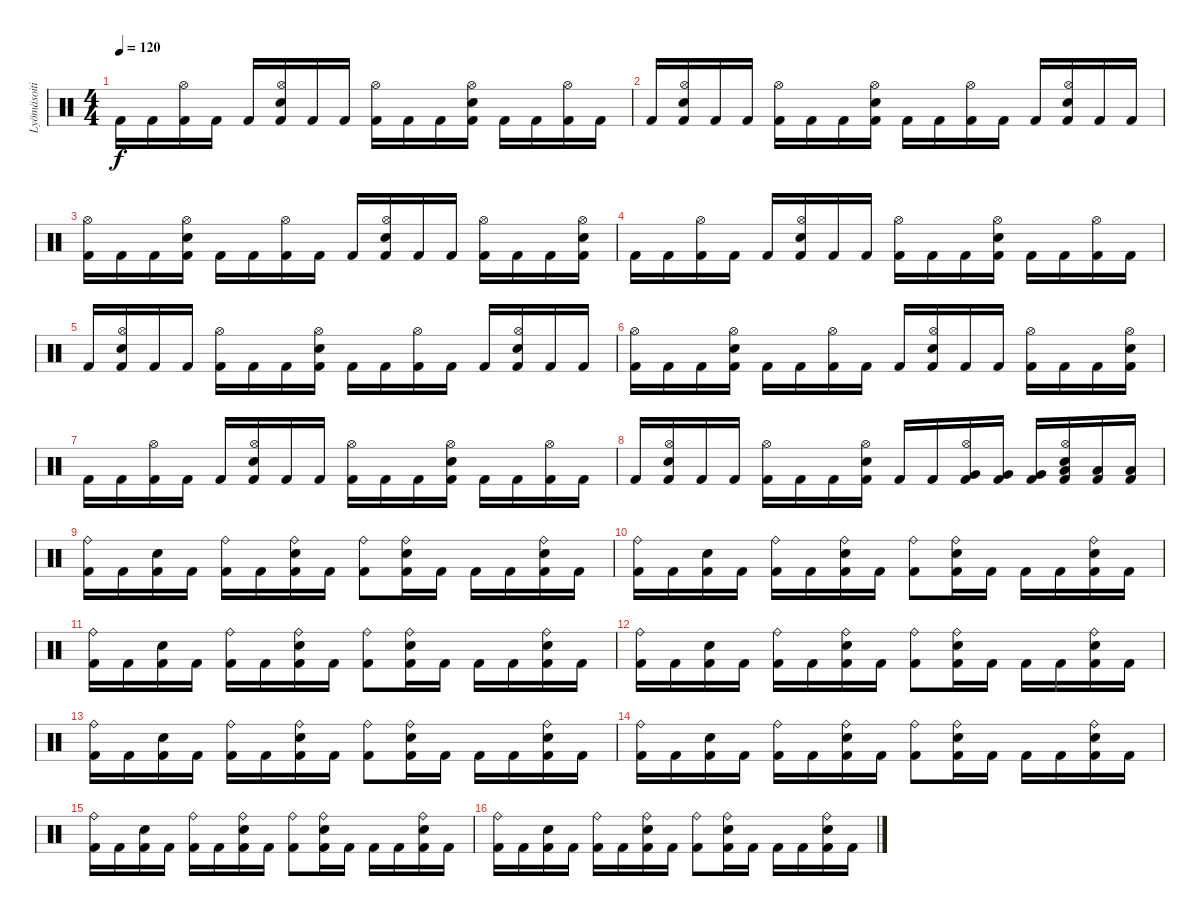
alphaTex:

\track ("Lyömäsoitin" "Lyömäsoiti") {instrument percussion}
\staff {score}
\articulation defaults
\ts (4 4)
\tempo 120
\clef neutral
\ks c "Kick (hit) 2".16{dy f} "Kick (hit) 2".16
("Hi-Hat (open)" "Kick (hit) 2").16 "Kick (hit) 2".16 "Kick (hit) 2".16 ("Hi-Hat (open)" "Electric Snare (hit)" "Kick (hit) 2").16 "Kick (hit) 2".16 "Kick (hit) 2".16 ("Hi-Hat (open)" "Kick (hit) 2").16 "Kick (hit) 2".16 "Kick (hit) 2".16 ("Hi-Hat (open)" "Electric Snare (hit)" "Kick (hit) 2").16 "Kick (hit) 2".16 "Kick (hit) 2".16 ("Hi-Hat (open)" "Kick (hit) 2").16 "Kick (hit) 2".16 |
"Kick (hit) 2".16 ("Hi-Hat (open)" "Electric Snare (hit)" "Kick (hit) 2").16 "Kick (hit) 2".16 "Kick (hit) 2".16 ("Hi-Hat (open)" "Kick (hit) 2").16 "Kick (hit) 2".16 "Kick (hit) 2".16 ("Hi-Hat (open)" "Electric Snare (hit)" "Kick (hit) 2").16 "Kick (hit) 2".16 "Kick (hit) 2".16 ("Hi-Hat (open)" "Kick (hit) 2").16 "Kick (hit) 2".16 "Kick (hit) 2".16 ("Hi-Hat (open)" "Electric Snare (hit)" "Kick (hit) 2").16 "Kick (hit) 2".16 "Kick (hit) 2".16 |
("Hi-Hat (open)" "Kick (hit) 2").16 "Kick (hit) 2".16 "Kick (hit) 2".16 ("Hi-Hat (open)" "Electric Snare (hit)" "Kick (hit) 2").16 "Kick (hit) 2".16 "Kick (hit) 2".16 ("Hi-Hat (open)" "Kick (hit) 2").16 "Kick (hit) 2".16 "Kick (hit) 2".16 ("Hi-Hat (open)" "Electric Snare (hit)" "Kick (hit) 2").16 "Kick (hit) 2".16 "Kick (hit) 2".16 ("Hi-Hat (open)" "Kick (hit) 2").16 "Kick (hit) 2".16 "Kick (hit) 2".16 ("Hi-Hat (open)" "Electric Snare (hit)" "Kick (hit) 2").16 |
"Kick (hit) 2".16 "Kick (hit) 2".16 ("Hi-Hat (open)" "Kick (hit) 2").16 "Kick (hit) 2".16 "Kick (hit) 2".16 ("Hi-Hat (open)" "Electric Snare (hit)" "Kick (hit) 2").16 "Kick (hit) 2".16 "Kick (hit) 2".16 ("Hi-Hat (open)" "Kick (hit) 2").16 "Kick (hit) 2".16 "Kick (hit) 2".16 ("Hi-Hat (open)" "Electric Snare (hit)" "Kick (hit) 2").16 "Kick (hit) 2".16 "Kick (hit) 2".16 ("Hi-Hat (open)" "Kick (hit) 2").16 "Kick (hit) 2".16 |
"Kick (hit) 2".16 ("Hi-Hat (open)" "Electric Snare (hit)" "Kick (hit) 2").16 "Kick (hit) 2".16 "Kick (hit) 2".16 ("Hi-Hat (open)" "Kick (hit) 2").16 "Kick (hit) 2".16 "Kick (hit) 2".16 ("Hi-Hat (open)" "Electric Snare (hit)" "Kick (hit) 2").16 "Kick (hit) 2".16 "Kick (hit) 2".16 ("Hi-Hat (open)" "Kick (hit) 2").16 "Kick (hit) 2".16 "Kick (hit) 2".16 ("Hi-Hat (open)" "Electric Snare (hit)" "Kick (hit) 2").16 "Kick (hit) 2".16 "Kick (hit) 2".16 |
("Hi-Hat (open)" "Kick (hit) 2").16 "Kick (hit) 2".16 "Kick (hit) 2".16 ("Hi-Hat (open)" "Electric Snare (hit)" "Kick (hit) 2").16 "Kick (hit) 2".16 "Kick (hit) 2".16 ("Hi-Hat (open)" "Kick (hit) 2").16 "Kick (hit) 2".16 "Kick (hit) 2".16 ("Hi-Hat (open)" "Electric Snare (hit)" "Kick (hit) 2").16 "Kick (hit) 2".16 "Kick (hit) 2".16 ("Hi-Hat (open)" "Kick (hit) 2").16 "Kick (hit) 2".16 "Kick (hit) 2".16 ("Hi-Hat (open)" "Electric Snare (hit)" "Kick (hit) 2").16 |
"Kick (hit) 2".16 "Kick (hit) 2".16 ("Hi-Hat (open)" "Kick (hit) 2").16 "Kick (hit) 2".16 "Kick (hit) 2".16 ("Hi-Hat (open)" "Electric Snare (hit)" "Kick (hit) 2").16 "Kick (hit) 2".16 "Kick (hit) 2".16 ("Hi-Hat (open)" "Kick (hit) 2").16 "Kick (hit) 2".16 "Kick (hit) 2".16 ("Hi-Hat (open)" "Electric Snare (hit)" "Kick (hit) 2").16 "Kick (hit) 2".16 "Kick (hit) 2".16 ("Hi-Hat (open)" "Kick (hit) 2").16 "Kick (hit) 2".16 |
"Kick (hit) 2".16 ("Hi-Hat (open)" "Electric Snare (hit)" "Kick (hit) 2").16 "Kick (hit) 2".16 "Kick (hit) 2".16 ("Hi-Hat (open)" "Kick (hit) 2").16 "Kick (hit) 2".16 "Kick (hit) 2".16 ("Hi-Hat (open)" "Electric Snare (hit)" "Kick (hit) 2").16 "Kick (hit) 2".16 "Kick (hit) 2".16 ("Hi-Hat (open)" "Very Low Tom (hit)" "Kick (hit) 2").16 ("Very Low Tom (hit)" "Kick (hit) 2").16 ("Very Low Tom (hit)" "Kick (hit) 2").16 ("Hi-Hat (open)" "Low Tom (hit)" "Electric Snare (hit)" "Kick (hit) 2").16 ("Low Tom (hit)" "Kick (hit) 2").16 ("Low Tom (hit)" "Kick (hit) 2").16 |
("Ride (bell)" "Kick (hit) 2").16 "Kick (hit) 2".16 ("Electric Snare (hit)" "Kick (hit) 2").16 "Kick (hit) 2".16 ("Ride (bell)" "Kick (hit) 2").16 "Kick (hit) 2".16 ("Ride (bell)" "Electric Snare (hit)" "Kick (hit) 2").16 "Kick (hit) 2".16 ("Ride (bell)" "Kick (hit) 2").8 ("Ride (bell)" "Electric Snare (hit)" "Kick (hit) 2").16 "Kick (hit) 2".16 "Kick (hit) 2".16 "Kick (hit) 2".16 ("Ride (bell)" "Electric Snare (hit)" "Kick (hit) 2").16 "Kick (hit) 2".16 |
("Ride (bell)" "Kick (hit) 2").16 "Kick (hit) 2".16 ("Electric Snare (hit)" "Kick (hit) 2").16 "Kick (hit) 2".16 ("Ride (bell)" "Kick (hit) 2").16 "Kick (hit) 2".16 ("Ride (bell)" "Electric Snare (hit)" "Kick (hit) 2").16 "Kick (hit) 2".16 ("Ride (bell)" "Kick (hit) 2").8 ("Ride (bell)" "Electric Snare (hit)" "Kick (hit) 2").16 "Kick (hit) 2".16 "Kick (hit) 2".16 "Kick (hit) 2".16 ("Ride (bell)" "Electric Snare (hit)" "Kick (hit) 2").16 "Kick (hit) 2".16 |
("Ride (bell)" "Kick (hit) 2").16 "Kick (hit) 2".16 ("Electric Snare (hit)" "Kick (hit) 2").16 "Kick (hit) 2".16 ("Ride (bell)" "Kick (hit) 2").16 "Kick (hit) 2".16 ("Ride (bell)" "Electric Snare (hit)" "Kick (hit) 2").16 "Kick (hit) 2".16 ("Ride (bell)" "Kick (hit) 2").8 ("Ride (bell)" "Electric Snare (hit)" "Kick (hit) 2").16 "Kick (hit) 2".16 "Kick (hit) 2".16 "Kick (hit) 2".16 ("Ride (bell)" "Electric Snare (hit)" "Kick (hit) 2").16 "Kick (hit) 2".16 |
("Ride (bell)" "Kick (hit) 2").16 "Kick (hit) 2".16 ("Electric Snare (hit)" "Kick (hit) 2").16 "Kick (hit) 2".16 ("Ride (bell)" "Kick (hit) 2").16 "Kick (hit) 2".16 ("Ride (bell)" "Electric Snare (hit)" "Kick (hit) 2").16 "Kick (hit) 2".16 ("Ride (bell)" "Kick (hit) 2").8 ("Ride (bell)" "Electric Snare (hit)" "Kick (hit) 2").16 "Kick (hit) 2".16 "Kick (hit) 2".16 "Kick (hit) 2".16 ("Ride (bell)" "Electric Snare (hit)" "Kick (hit) 2").16 "Kick (hit) 2".16 |
("Ride (bell)" "Kick (hit) 2").16 "Kick (hit) 2".16 ("Electric Snare (hit)" "Kick (hit) 2").16 "Kick (hit) 2".16 ("Ride (bell)" "Kick (hit) 2").16 "Kick (hit) 2".16 ("Ride (bell)" "Electric Snare (hit)" "Kick (hit) 2").16 "Kick (hit) 2".16 ("Ride (bell)" "Kick (hit) 2").8 ("Ride (bell)" "Electric Snare (hit)" "Kick (hit) 2").16 "Kick (hit) 2".16 "Kick (hit) 2".16 "Kick (hit) 2".16 ("Ride (bell)" "Electric Snare (hit)" "Kick (hit) 2").16 "Kick (hit) 2".16 |
("Ride (bell)" "Kick (hit) 2").16 "Kick (hit) 2".16 ("Electric Snare (hit)" "Kick (hit) 2").16 "Kick (hit) 2".16 ("Ride (bell)" "Kick (hit) 2").16 "Kick (hit) 2".16 ("Ride (bell)" "Electric Snare (hit)" "Kick (hit) 2").16 "Kick (hit) 2".16 ("Ride (bell)" "Kick (hit) 2").8 ("Ride (bell)" "Electric Snare (hit)" "Kick (hit) 2").16 "Kick (hit) 2".16 "Kick (hit) 2".16 "Kick (hit) 2".16 ("Ride (bell)" "Electric Snare (hit)" "Kick (hit) 2").16 "Kick (hit) 2".16 |
("Ride (bell)" "Kick (hit) 2").16 "Kick (hit) 2".16 ("Electric Snare (hit)" "Kick (hit) 2").16 "Kick (hit) 2".16 ("Ride (bell)" "Kick (hit) 2").16 "Kick (hit) 2".16 ("Ride (bell)" "Electric Snare (hit)" "Kick (hit) 2").16 "Kick (hit) 2".16 ("Ride (bell)" "Kick (hit) 2").8 ("Ride (bell)" "Electric Snare (hit)" "Kick (hit) 2").16 "Kick (hit) 2".16 "Kick (hit) 2".16 "Kick (hit) 2".16 ("Ride (bell)" "Electric Snare (hit)" "Kick (hit) 2").16 "Kick (hit) 2".16 |
("Ride (bell)" "Kick (hit) 2").16 "Kick (hit) 2".16 ("Electric Snare (hit)" "Kick (hit) 2").16 "Kick (hit) 2".16 ("Ride (bell)" "Kick (hit) 2").16 "Kick (hit) 2".16 ("Ride (bell)" "Electric Snare (hit)" "Kick (hit) 2").16 "Kick (hit) 2".16 ("Ride (bell)" "Kick (hit) 2").8 ("Ride (bell)" "Electric Snare (hit)" "Kick (hit) 2").16 "Kick (hit) 2".16 "Kick (hit) 2".16 "Kick (hit) 2".16 ("Ride (bell)" "Electric Snare (hit)" "Kick (hit) 2").16 "Kick (hit) 2".16
